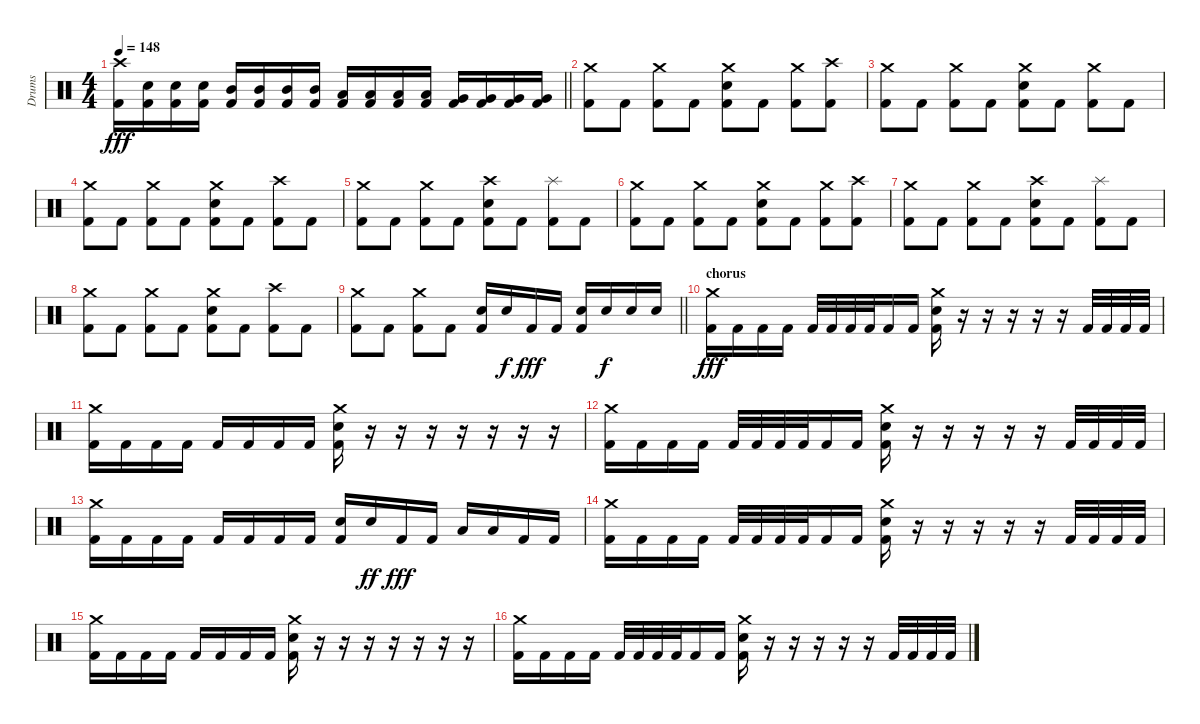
\track ("Drums" "Drums") {instrument percussion}
\staff {score}
\articulation defaults
\ts (4 4)
\tempo 148
\clef neutral
\barLineRight lightlight
\ks c
("Crash high (hit)" "Kick (hit) 2").16{dy fff} ("Electric Snare (hit)" "Kick (hit) 2").16 ("Electric Snare (hit)" "Kick (hit) 2").16 ("Electric Snare (hit)" "Kick (hit) 2").16 ("Mid Tom (hit)" "Kick (hit) 2").16 ("Mid Tom (hit)" "Kick (hit) 2").16 ("Mid Tom (hit)" "Kick (hit) 2").16 ("Mid Tom (hit)" "Kick (hit) 2").16 ("Low Tom (hit)" "Kick (hit) 2").16 ("Low Tom (hit)" "Kick (hit) 2").16 ("Low Tom (hit)" "Kick (hit) 2").16 ("Low Tom (hit)" "Kick (hit) 2").16 ("Very Low Tom (hit)" "Kick (hit) 2").16 ("Very Low Tom (hit)" "Kick (hit) 2").16 ("Very Low Tom (hit)" "Kick (hit) 2").16 ("Very Low Tom (hit)" "Kick (hit) 2").16 |
("Crash medium (hit)" "Kick (hit) 2").8 "Kick (hit) 2".8 ("Crash medium (hit)" "Kick (hit) 2").8 "Kick (hit) 2".8 ("Crash medium (hit)" "Electric Snare (hit)" "Kick (hit) 2").8 "Kick (hit) 2".8 ("Crash medium (hit)" "Kick (hit) 2").8 ("Crash high (hit)" "Kick (hit) 2").8 |
("Crash medium (hit)" "Kick (hit) 2").8 "Kick (hit) 2".8 ("Crash medium (hit)" "Kick (hit) 2").8 "Kick (hit) 2".8 ("Crash medium (hit)" "Electric Snare (hit)" "Kick (hit) 2").8 "Kick (hit) 2".8 ("Crash medium (hit)" "Kick (hit) 2").8 "Kick (hit) 2".8 |
("Crash medium (hit)" "Kick (hit) 2").8 "Kick (hit) 2".8 ("Crash medium (hit)" "Kick (hit) 2").8 "Kick (hit) 2".8 ("Crash medium (hit)" "Electric Snare (hit)" "Kick (hit) 2").8 "Kick (hit) 2".8 ("Crash high (hit)" "Kick (hit) 2").8 "Kick (hit) 2".8 |
("Crash medium (hit)" "Kick (hit) 2").8 "Kick (hit) 2".8 ("Crash medium (hit)" "Kick (hit) 2").8 "Kick (hit) 2".8 ("Crash high (hit)" "Electric Snare (hit)" "Kick (hit) 2").8 "Kick (hit) 2".8 ("Splash (hit)" "Kick (hit) 2").8 "Kick (hit) 2".8 |
("Crash medium (hit)" "Kick (hit) 2").8 "Kick (hit) 2".8 ("Crash medium (hit)" "Kick (hit) 2").8 "Kick (hit) 2".8 ("Crash medium (hit)" "Electric Snare (hit)" "Kick (hit) 2").8 "Kick (hit) 2".8 ("Crash medium (hit)" "Kick (hit) 2").8 ("Crash high (hit)" "Kick (hit) 2").8 |
("Crash medium (hit)" "Kick (hit) 2").8 "Kick (hit) 2".8 ("Crash medium (hit)" "Kick (hit) 2").8 "Kick (hit) 2".8 ("Crash high (hit)" "Electric Snare (hit)" "Kick (hit) 2").8 "Kick (hit) 2".8 ("Splash (hit)" "Kick (hit) 2").8 "Kick (hit) 2".8 |
("Crash medium (hit)" "Kick (hit) 2").8 "Kick (hit) 2".8 ("Crash medium (hit)" "Kick (hit) 2").8 "Kick (hit) 2".8 ("Crash medium (hit)" "Electric Snare (hit)" "Kick (hit) 2").8 "Kick (hit) 2".8 ("Crash high (hit)" "Kick (hit) 2").8 "Kick (hit) 2".8 |
\barLineRight lightlight
("Crash medium (hit)" "Kick (hit) 2").8 "Kick (hit) 2".8 ("Crash medium (hit)" "Kick (hit) 2").8 "Kick (hit) 2".8 ("Electric Snare (hit)" "Kick (hit) 2").16 "Electric Snare (hit)".16{dy f} "Kick (hit) 2".16{dy fff} "Kick (hit) 2".16 ("Electric Snare (hit)" "Kick (hit) 2").16 "Electric Snare (hit)".16{dy f} "Electric Snare (hit)".16 "Electric Snare (hit)".16 |
\section ("" "chorus")
("Crash medium (hit)" "Kick (hit) 2").16{dy fff} "Kick (hit) 2".16 "Kick (hit) 2".16 "Kick (hit) 2".16 "Kick (hit) 2".32 "Kick (hit) 2".32 "Kick (hit) 2".32 "Kick (hit) 2".32 "Kick (hit) 2".16 "Kick (hit) 2".16 ("Crash medium (hit)" "Electric Snare (hit)" "Kick (hit) 2").16 r.16 r.16 r.16 r.16 r.16 "Kick (hit) 2".32 "Kick (hit) 2".32 "Kick (hit) 2".32 "Kick (hit) 2".32 |
("Crash medium (hit)" "Kick (hit) 2").16 "Kick (hit) 2".16 "Kick (hit) 2".16 "Kick (hit) 2".16 "Kick (hit) 2".16 "Kick (hit) 2".16 "Kick (hit) 2".16 "Kick (hit) 2".16 ("Crash medium (hit)" "Electric Snare (hit)" "Kick (hit) 2").16 r.16 r.16 r.16 r.16 r.16 r.16 r.16 |
("Crash medium (hit)" "Kick (hit) 2").16 "Kick (hit) 2".16 "Kick (hit) 2".16 "Kick (hit) 2".16 "Kick (hit) 2".32 "Kick (hit) 2".32 "Kick (hit) 2".32 "Kick (hit) 2".32 "Kick (hit) 2".16 "Kick (hit) 2".16 ("Crash medium (hit)" "Electric Snare (hit)" "Kick (hit) 2").16 r.16 r.16 r.16 r.16 r.16 "Kick (hit) 2".32 "Kick (hit) 2".32 "Kick (hit) 2".32 "Kick (hit) 2".32 |
("Crash medium (hit)" "Kick (hit) 2").16 "Kick (hit) 2".16 "Kick (hit) 2".16 "Kick (hit) 2".16 "Kick (hit) 2".16 "Kick (hit) 2".16 "Kick (hit) 2".16 "Kick (hit) 2".16 ("Electric Snare (hit)" "Kick (hit) 2").16 "Electric Snare (hit)".16{dy ff} "Kick (hit) 2".16{dy fff} "Kick (hit) 2".16 "Low Tom (hit)".16 "Low Tom (hit)".16 "Kick (hit) 2".16 "Kick (hit) 2".16 |
("Crash medium (hit)" "Kick (hit) 2").16 "Kick (hit) 2".16 "Kick (hit) 2".16 "Kick (hit) 2".16 "Kick (hit) 2".32 "Kick (hit) 2".32 "Kick (hit) 2".32 "Kick (hit) 2".32 "Kick (hit) 2".16 "Kick (hit) 2".16 ("Crash medium (hit)" "Electric Snare (hit)" "Kick (hit) 2").16 r.16 r.16 r.16 r.16 r.16 "Kick (hit) 2".32 "Kick (hit) 2".32 "Kick (hit) 2".32 "Kick (hit) 2".32 |
("Crash medium (hit)" "Kick (hit) 2").16 "Kick (hit) 2".16 "Kick (hit) 2".16 "Kick (hit) 2".16 "Kick (hit) 2".16 "Kick (hit) 2".16 "Kick (hit) 2".16 "Kick (hit) 2".16 ("Crash medium (hit)" "Electric Snare (hit)" "Kick (hit) 2").16 r.16 r.16 r.16 r.16 r.16 r.16 r.16 |
("Crash medium (hit)" "Kick (hit) 2").16 "Kick (hit) 2".16 "Kick (hit) 2".16 "Kick (hit) 2".16 "Kick (hit) 2".32 "Kick (hit) 2".32 "Kick (hit) 2".32 "Kick (hit) 2".32 "Kick (hit) 2".16 "Kick (hit) 2".16 ("Crash medium (hit)" "Electric Snare (hit)" "Kick (hit) 2").16 r.16 r.16 r.16 r.16 r.16 "Kick (hit) 2".32 "Kick (hit) 2".32 "Kick (hit) 2".32 "Kick (hit) 2".32
